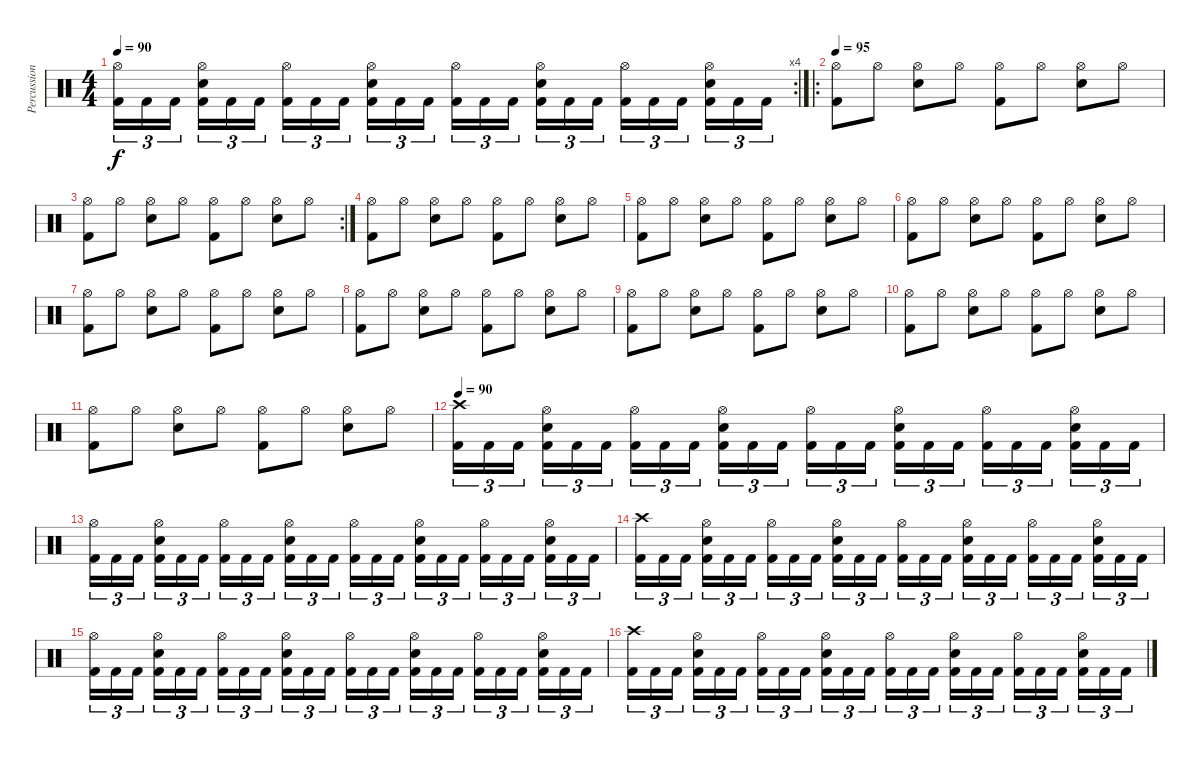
\track ("Percussion" "Percussion") {instrument percussion}
\staff {score}
\articulation defaults
\rc 4
\ts (4 4)
\tempo 90
\clef neutral
\ks c
("Hi-Hat (open)" "Kick (hit) 2").16{tu (3 2) dy f} "Kick (hit) 2".16{tu (3 2)} "Kick (hit) 2".16{tu (3 2)} ("Hi-Hat (open)" "Electric Snare (hit)" "Kick (hit) 2").16{tu (3 2)} "Kick (hit) 2".16{tu (3 2)} "Kick (hit) 2".16{tu (3 2)} ("Hi-Hat (open)" "Kick (hit) 2").16{tu (3 2)} "Kick (hit) 2".16{tu (3 2)} "Kick (hit) 2".16{tu (3 2)} ("Hi-Hat (open)" "Electric Snare (hit)" "Kick (hit) 2").16{tu (3 2)} "Kick (hit) 2".16{tu (3 2)} "Kick (hit) 2".16{tu (3 2)} ("Hi-Hat (open)" "Kick (hit) 2").16{tu (3 2)} "Kick (hit) 2".16{tu (3 2)} "Kick (hit) 2".16{tu (3 2)} ("Hi-Hat (open)" "Electric Snare (hit)" "Kick (hit) 2").16{tu (3 2)} "Kick (hit) 2".16{tu (3 2)} "Kick (hit) 2".16{tu (3 2)} ("Hi-Hat (open)" "Kick (hit) 2").16{tu (3 2)} "Kick (hit) 2".16{tu (3 2)} "Kick (hit) 2".16{tu (3 2)} ("Hi-Hat (open)" "Electric Snare (hit)" "Kick (hit) 2").16{tu (3 2)} "Kick (hit) 2".16{tu (3 2)} "Kick (hit) 2".16{tu (3 2)} |
\ro
\tempo 95
("Hi-Hat (open)" "Kick (hit) 2").8 "Hi-Hat (open)".8 ("Hi-Hat (open)" "Electric Snare (hit)").8 "Hi-Hat (open)".8 ("Hi-Hat (open)" "Kick (hit) 2").8 "Hi-Hat (open)".8 ("Hi-Hat (open)" "Electric Snare (hit)").8 "Hi-Hat (open)".8 |
\rc 2
("Hi-Hat (open)" "Kick (hit) 2").8 "Hi-Hat (open)".8 ("Hi-Hat (open)" "Electric Snare (hit)").8 "Hi-Hat (open)".8 ("Hi-Hat (open)" "Kick (hit) 2").8 "Hi-Hat (open)".8 ("Hi-Hat (open)" "Electric Snare (hit)").8 "Hi-Hat (open)".8 |
("Hi-Hat (open)" "Kick (hit) 2").8 "Hi-Hat (open)".8 ("Hi-Hat (open)" "Electric Snare (hit)").8 "Hi-Hat (open)".8 ("Hi-Hat (open)" "Kick (hit) 2").8 "Hi-Hat (open)".8 ("Hi-Hat (open)" "Electric Snare (hit)").8 "Hi-Hat (open)".8 |
("Hi-Hat (open)" "Kick (hit) 2").8 "Hi-Hat (open)".8 ("Hi-Hat (open)" "Electric Snare (hit)").8 "Hi-Hat (open)".8 ("Hi-Hat (open)" "Kick (hit) 2").8 "Hi-Hat (open)".8 ("Hi-Hat (open)" "Electric Snare (hit)").8 "Hi-Hat (open)".8 |
("Hi-Hat (open)" "Kick (hit) 2").8 "Hi-Hat (open)".8 ("Hi-Hat (open)" "Electric Snare (hit)").8 "Hi-Hat (open)".8 ("Hi-Hat (open)" "Kick (hit) 2").8 "Hi-Hat (open)".8 ("Hi-Hat (open)" "Electric Snare (hit)").8 "Hi-Hat (open)".8 |
("Hi-Hat (open)" "Kick (hit) 2").8 "Hi-Hat (open)".8 ("Hi-Hat (open)" "Electric Snare (hit)").8 "Hi-Hat (open)".8 ("Hi-Hat (open)" "Kick (hit) 2").8 "Hi-Hat (open)".8 ("Hi-Hat (open)" "Electric Snare (hit)").8 "Hi-Hat (open)".8 |
("Hi-Hat (open)" "Kick (hit) 2").8 "Hi-Hat (open)".8 ("Hi-Hat (open)" "Electric Snare (hit)").8 "Hi-Hat (open)".8 ("Hi-Hat (open)" "Kick (hit) 2").8 "Hi-Hat (open)".8 ("Hi-Hat (open)" "Electric Snare (hit)").8 "Hi-Hat (open)".8 |
("Hi-Hat (open)" "Kick (hit) 2").8 "Hi-Hat (open)".8 ("Hi-Hat (open)" "Electric Snare (hit)").8 "Hi-Hat (open)".8 ("Hi-Hat (open)" "Kick (hit) 2").8 "Hi-Hat (open)".8 ("Hi-Hat (open)" "Electric Snare (hit)").8 "Hi-Hat (open)".8 |
("Hi-Hat (open)" "Kick (hit) 2").8 "Hi-Hat (open)".8 ("Hi-Hat (open)" "Electric Snare (hit)").8 "Hi-Hat (open)".8 ("Hi-Hat (open)" "Kick (hit) 2").8 "Hi-Hat (open)".8 ("Hi-Hat (open)" "Electric Snare (hit)").8 "Hi-Hat (open)".8 |
("Hi-Hat (open)" "Kick (hit) 2").8 "Hi-Hat (open)".8 ("Hi-Hat (open)" "Electric Snare (hit)").8 "Hi-Hat (open)".8 ("Hi-Hat (open)" "Kick (hit) 2").8 "Hi-Hat (open)".8 ("Hi-Hat (open)" "Electric Snare (hit)").8 "Hi-Hat (open)".8 |
\tempo 90
("Crash high (hit)" "Kick (hit) 2").16{tu (3 2)} "Kick (hit) 2".16{tu (3 2)} "Kick (hit) 2".16{tu (3 2)} ("Hi-Hat (open)" "Electric Snare (hit)" "Kick (hit) 2").16{tu (3 2)} "Kick (hit) 2".16{tu (3 2)} "Kick (hit) 2".16{tu (3 2)} ("Hi-Hat (open)" "Kick (hit) 2").16{tu (3 2)} "Kick (hit) 2".16{tu (3 2)} "Kick (hit) 2".16{tu (3 2)} ("Hi-Hat (open)" "Electric Snare (hit)" "Kick (hit) 2").16{tu (3 2)} "Kick (hit) 2".16{tu (3 2)} "Kick (hit) 2".16{tu (3 2)} ("Hi-Hat (open)" "Kick (hit) 2").16{tu (3 2)} "Kick (hit) 2".16{tu (3 2)} "Kick (hit) 2".16{tu (3 2)} ("Hi-Hat (open)" "Electric Snare (hit)" "Kick (hit) 2").16{tu (3 2)} "Kick (hit) 2".16{tu (3 2)} "Kick (hit) 2".16{tu (3 2)} ("Hi-Hat (open)" "Kick (hit) 2").16{tu (3 2)} "Kick (hit) 2".16{tu (3 2)} "Kick (hit) 2".16{tu (3 2)} ("Hi-Hat (open)" "Electric Snare (hit)" "Kick (hit) 2").16{tu (3 2)} "Kick (hit) 2".16{tu (3 2)} "Kick (hit) 2".16{tu (3 2)} |
("Hi-Hat (open)" "Kick (hit) 2").16{tu (3 2)} "Kick (hit) 2".16{tu (3 2)} "Kick (hit) 2".16{tu (3 2)} ("Hi-Hat (open)" "Electric Snare (hit)" "Kick (hit) 2").16{tu (3 2)} "Kick (hit) 2".16{tu (3 2)} "Kick (hit) 2".16{tu (3 2)} ("Hi-Hat (open)" "Kick (hit) 2").16{tu (3 2)} "Kick (hit) 2".16{tu (3 2)} "Kick (hit) 2".16{tu (3 2)} ("Hi-Hat (open)" "Electric Snare (hit)" "Kick (hit) 2").16{tu (3 2)} "Kick (hit) 2".16{tu (3 2)} "Kick (hit) 2".16{tu (3 2)} ("Hi-Hat (open)" "Kick (hit) 2").16{tu (3 2)} "Kick (hit) 2".16{tu (3 2)} "Kick (hit) 2".16{tu (3 2)} ("Hi-Hat (open)" "Electric Snare (hit)" "Kick (hit) 2").16{tu (3 2)} "Kick (hit) 2".16{tu (3 2)} "Kick (hit) 2".16{tu (3 2)} ("Hi-Hat (open)" "Kick (hit) 2").16{tu (3 2)} "Kick (hit) 2".16{tu (3 2)} "Kick (hit) 2".16{tu (3 2)} ("Hi-Hat (open)" "Electric Snare (hit)" "Kick (hit) 2").16{tu (3 2)} "Kick (hit) 2".16{tu (3 2)} "Kick (hit) 2".16{tu (3 2)} |
("Crash high (hit)" "Kick (hit) 2").16{tu (3 2)} "Kick (hit) 2".16{tu (3 2)} "Kick (hit) 2".16{tu (3 2)} ("Hi-Hat (open)" "Electric Snare (hit)" "Kick (hit) 2").16{tu (3 2)} "Kick (hit) 2".16{tu (3 2)} "Kick (hit) 2".16{tu (3 2)} ("Hi-Hat (open)" "Kick (hit) 2").16{tu (3 2)} "Kick (hit) 2".16{tu (3 2)} "Kick (hit) 2".16{tu (3 2)} ("Hi-Hat (open)" "Electric Snare (hit)" "Kick (hit) 2").16{tu (3 2)} "Kick (hit) 2".16{tu (3 2)} "Kick (hit) 2".16{tu (3 2)} ("Hi-Hat (open)" "Kick (hit) 2").16{tu (3 2)} "Kick (hit) 2".16{tu (3 2)} "Kick (hit) 2".16{tu (3 2)} ("Hi-Hat (open)" "Electric Snare (hit)" "Kick (hit) 2").16{tu (3 2)} "Kick (hit) 2".16{tu (3 2)} "Kick (hit) 2".16{tu (3 2)} ("Hi-Hat (open)" "Kick (hit) 2").16{tu (3 2)} "Kick (hit) 2".16{tu (3 2)} "Kick (hit) 2".16{tu (3 2)} ("Hi-Hat (open)" "Electric Snare (hit)" "Kick (hit) 2").16{tu (3 2)} "Kick (hit) 2".16{tu (3 2)} "Kick (hit) 2".16{tu (3 2)} |
("Hi-Hat (open)" "Kick (hit) 2").16{tu (3 2)} "Kick (hit) 2".16{tu (3 2)} "Kick (hit) 2".16{tu (3 2)} ("Hi-Hat (open)" "Electric Snare (hit)" "Kick (hit) 2").16{tu (3 2)} "Kick (hit) 2".16{tu (3 2)} "Kick (hit) 2".16{tu (3 2)} ("Hi-Hat (open)" "Kick (hit) 2").16{tu (3 2)} "Kick (hit) 2".16{tu (3 2)} "Kick (hit) 2".16{tu (3 2)} ("Hi-Hat (open)" "Electric Snare (hit)" "Kick (hit) 2").16{tu (3 2)} "Kick (hit) 2".16{tu (3 2)} "Kick (hit) 2".16{tu (3 2)} ("Hi-Hat (open)" "Kick (hit) 2").16{tu (3 2)} "Kick (hit) 2".16{tu (3 2)} "Kick (hit) 2".16{tu (3 2)} ("Hi-Hat (open)" "Electric Snare (hit)" "Kick (hit) 2").16{tu (3 2)} "Kick (hit) 2".16{tu (3 2)} "Kick (hit) 2".16{tu (3 2)} ("Hi-Hat (open)" "Kick (hit) 2").16{tu (3 2)} "Kick (hit) 2".16{tu (3 2)} "Kick (hit) 2".16{tu (3 2)} ("Hi-Hat (open)" "Electric Snare (hit)" "Kick (hit) 2").16{tu (3 2)} "Kick (hit) 2".16{tu (3 2)} "Kick (hit) 2".16{tu (3 2)} |
("Crash high (hit)" "Kick (hit) 2").16{tu (3 2)} "Kick (hit) 2".16{tu (3 2)} "Kick (hit) 2".16{tu (3 2)} ("Hi-Hat (open)" "Electric Snare (hit)" "Kick (hit) 2").16{tu (3 2)} "Kick (hit) 2".16{tu (3 2)} "Kick (hit) 2".16{tu (3 2)} ("Hi-Hat (open)" "Kick (hit) 2").16{tu (3 2)} "Kick (hit) 2".16{tu (3 2)} "Kick (hit) 2".16{tu (3 2)} ("Hi-Hat (open)" "Electric Snare (hit)" "Kick (hit) 2").16{tu (3 2)} "Kick (hit) 2".16{tu (3 2)} "Kick (hit) 2".16{tu (3 2)} ("Hi-Hat (open)" "Kick (hit) 2").16{tu (3 2)} "Kick (hit) 2".16{tu (3 2)} "Kick (hit) 2".16{tu (3 2)} ("Hi-Hat (open)" "Electric Snare (hit)" "Kick (hit) 2").16{tu (3 2)} "Kick (hit) 2".16{tu (3 2)} "Kick (hit) 2".16{tu (3 2)} ("Hi-Hat (open)" "Kick (hit) 2").16{tu (3 2)} "Kick (hit) 2".16{tu (3 2)} "Kick (hit) 2".16{tu (3 2)} ("Hi-Hat (open)" "Electric Snare (hit)" "Kick (hit) 2").16{tu (3 2)} "Kick (hit) 2".16{tu (3 2)} "Kick (hit) 2".16{tu (3 2)}
